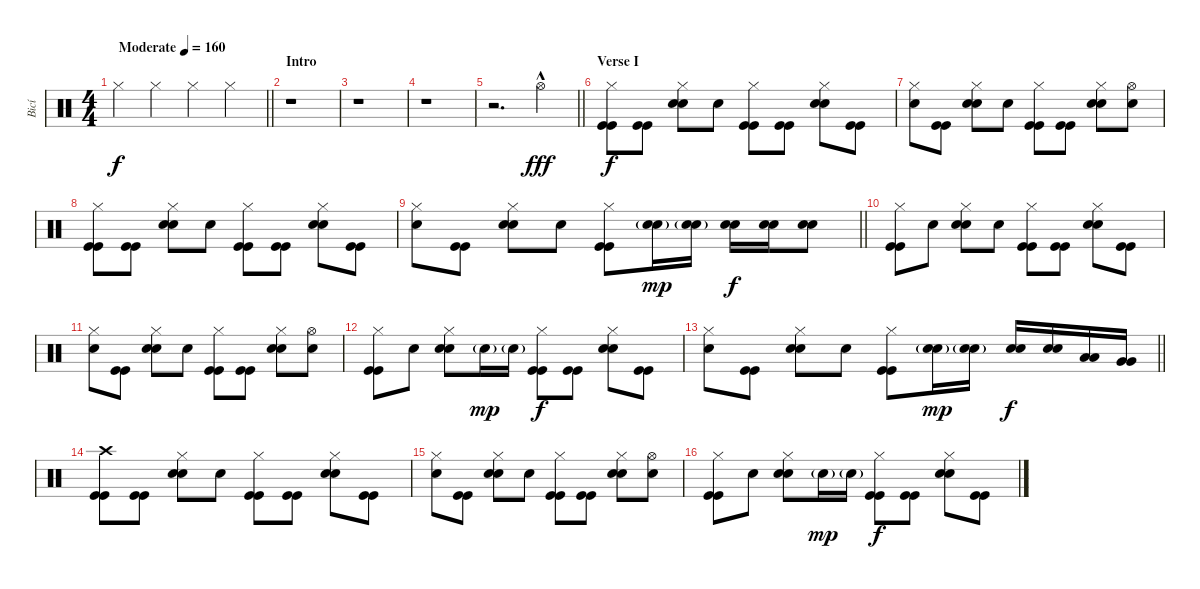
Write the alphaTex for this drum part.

\track ("Bicí" "Bicí") {instrument percussion}
\staff {score}
\articulation defaults
\ts (4 4)
\tempo (160 "Moderate")
\clef neutral
\barLineRight lightlight
\ks c "Hi-Hat (closed)".4{dy f} "Hi-Hat (closed)".4 "Hi-Hat (closed)".4 "Hi-Hat (closed)".4
|
\section ("" "Intro")
r.1 |
r.1 |
r.1 |
\barLineRight lightlight
r.2{d} "Hi-Hat (open)"{hac}.4{dy fff} |
\section ("" "Verse I")
("Hi-Hat (closed)" "Kick (hit)" "Kick (hit)").8{dy f} ("Kick (hit)" "Kick (hit)").8 ("Hi-Hat (closed)" "Electric Snare (hit)" "Electric Snare (hit)").8 "Snare (hit)".8 ("Hi-Hat (closed)" "Kick (hit)" "Kick (hit)").8 ("Kick (hit)" "Kick (hit)").8 ("Hi-Hat (closed)" "Electric Snare (hit)" "Electric Snare (hit)").8 ("Kick (hit)" "Kick (hit)").8 |
("Hi-Hat (closed)" "Snare (hit)").8 ("Kick (hit)" "Kick (hit)").8 ("Hi-Hat (closed)" "Electric Snare (hit)" "Electric Snare (hit)").8 "Snare (hit)".8 ("Hi-Hat (closed)" "Kick (hit)" "Kick (hit)").8 ("Kick (hit)" "Kick (hit)").8 ("Hi-Hat (closed)" "Electric Snare (hit)" "Electric Snare (hit)").8 ("Hi-Hat (open)" "Snare (hit)").8 |
("Hi-Hat (closed)" "Kick (hit)" "Kick (hit)").8 ("Kick (hit)" "Kick (hit)").8 ("Hi-Hat (closed)" "Electric Snare (hit)" "Electric Snare (hit)").8 "Snare (hit)".8 ("Hi-Hat (closed)" "Kick (hit)" "Kick (hit)").8 ("Kick (hit)" "Kick (hit)").8 ("Hi-Hat (closed)" "Electric Snare (hit)" "Electric Snare (hit)").8 ("Kick (hit)" "Kick (hit)").8 |
\barLineRight lightlight
("Hi-Hat (closed)" "Snare (hit)").8 ("Kick (hit)" "Kick (hit)").8 ("Hi-Hat (closed)" "Electric Snare (hit)" "Electric Snare (hit)").8 "Snare (hit)".8 ("Hi-Hat (closed)" "Kick (hit)" "Kick (hit)").8 ("Electric Snare (hit)"{g} "Electric Snare (hit)"{g}).16{dy mp} ("Electric Snare (hit)"{g} "Electric Snare (hit)"{g}).16 ("Electric Snare (hit)" "Electric Snare (hit)").16{dy f} ("Electric Snare (hit)" "Electric Snare (hit)").16 ("Electric Snare (hit)" "Electric Snare (hit)").8 |
("Hi-Hat (closed)" "Kick (hit)" "Kick (hit)").8 "Snare (hit)".8 ("Hi-Hat (closed)" "Electric Snare (hit)" "Electric Snare (hit)").8 "Snare (hit)".8 ("Hi-Hat (closed)" "Kick (hit)" "Kick (hit)").8 ("Kick (hit)" "Kick (hit)").8 ("Hi-Hat (closed)" "Electric Snare (hit)" "Electric Snare (hit)").8 ("Kick (hit)" "Kick (hit)").8 |
("Hi-Hat (closed)" "Snare (hit)").8 ("Kick (hit)" "Kick (hit)").8 ("Hi-Hat (closed)" "Electric Snare (hit)" "Electric Snare (hit)").8 "Snare (hit)".8 ("Hi-Hat (closed)" "Kick (hit)" "Kick (hit)").8 ("Kick (hit)" "Kick (hit)").8 ("Hi-Hat (closed)" "Electric Snare (hit)" "Electric Snare (hit)").8 ("Hi-Hat (open)" "Snare (hit)").8 |
("Hi-Hat (closed)" "Kick (hit)" "Kick (hit)").8 "Snare (hit)".8 ("Hi-Hat (closed)" "Electric Snare (hit)" "Electric Snare (hit)").8 "Electric Snare (hit)"{g}.16{dy mp} "Electric Snare (hit)"{g}.16 ("Hi-Hat (closed)" "Kick (hit)" "Kick (hit)").8{dy f} ("Kick (hit)" "Kick (hit)").8 ("Hi-Hat (closed)" "Electric Snare (hit)" "Electric Snare (hit)").8 ("Kick (hit)" "Kick (hit)").8 |
\barLineRight lightlight
("Hi-Hat (closed)" "Snare (hit)").8 ("Kick (hit)" "Kick (hit)").8 ("Hi-Hat (closed)" "Electric Snare (hit)" "Electric Snare (hit)").8 "Snare (hit)".8 ("Hi-Hat (closed)" "Kick (hit)" "Kick (hit)").8 ("Electric Snare (hit)"{g} "Electric Snare (hit)"{g}).16{dy mp} ("Electric Snare (hit)"{g} "Electric Snare (hit)"{g}).16 ("Electric Snare (hit)" "Electric Snare (hit)").16{dy f} ("Electric Snare (hit)" "Electric Snare (hit)").16 ("Low Tom (hit)" "Low Tom (hit)").16 ("Very Low Tom (hit)" "Very Low Tom (hit)").16 |
\section ("" "")
("Crash high (hit)" "Kick (hit)" "Kick (hit)").8 ("Kick (hit)" "Kick (hit)").8 ("Hi-Hat (closed)" "Electric Snare (hit)" "Electric Snare (hit)").8 "Snare (hit)".8 ("Hi-Hat (closed)" "Kick (hit)" "Kick (hit)").8 ("Kick (hit)" "Kick (hit)").8 ("Hi-Hat (closed)" "Electric Snare (hit)" "Electric Snare (hit)").8 ("Kick (hit)" "Kick (hit)").8 |
("Hi-Hat (closed)" "Snare (hit)").8 ("Kick (hit)" "Kick (hit)").8 ("Hi-Hat (closed)" "Electric Snare (hit)" "Electric Snare (hit)").8 "Snare (hit)".8 ("Hi-Hat (closed)" "Kick (hit)" "Kick (hit)").8 ("Kick (hit)" "Kick (hit)").8 ("Hi-Hat (closed)" "Electric Snare (hit)" "Electric Snare (hit)").8 ("Hi-Hat (open)" "Snare (hit)").8 |
("Hi-Hat (closed)" "Kick (hit)" "Kick (hit)").8 "Snare (hit)".8 ("Hi-Hat (closed)" "Electric Snare (hit)" "Electric Snare (hit)").8 "Electric Snare (hit)"{g}.16{dy mp} "Electric Snare (hit)"{g}.16 ("Hi-Hat (closed)" "Kick (hit)" "Kick (hit)").8{dy f} ("Kick (hit)" "Kick (hit)").8 ("Hi-Hat (closed)" "Electric Snare (hit)" "Electric Snare (hit)").8 ("Kick (hit)" "Kick (hit)").8
